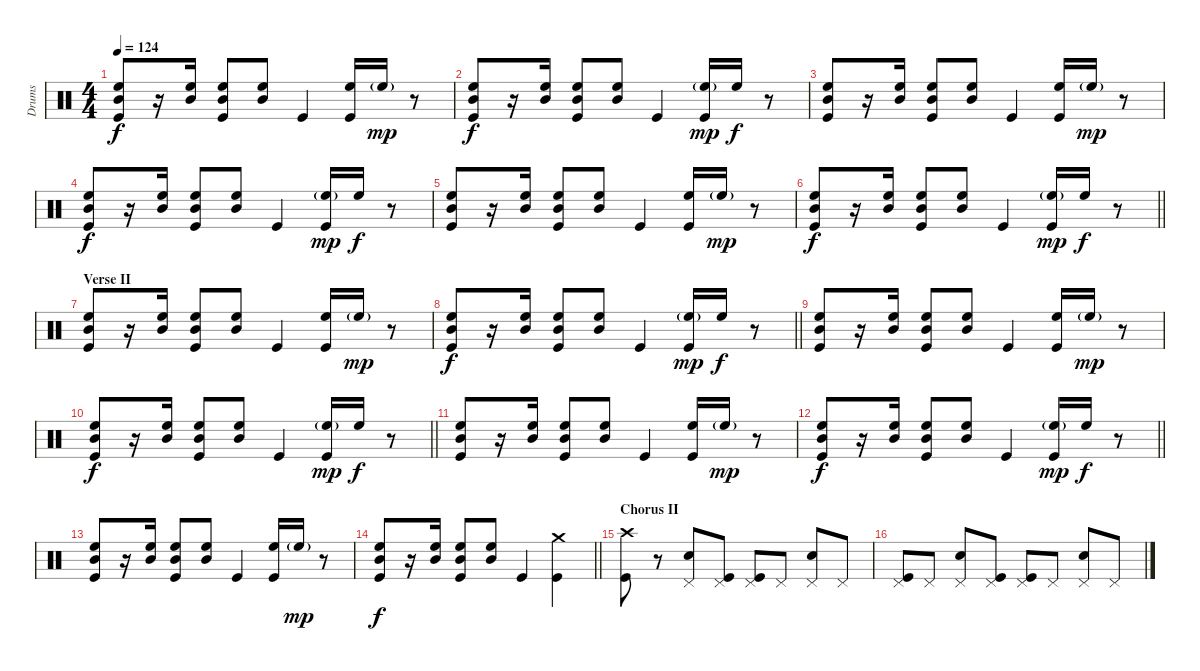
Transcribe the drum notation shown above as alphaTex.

\track ("Drums" "Drums") {instrument percussion}
\staff {score}
\articulation defaults
\ts (4 4)
\tempo 124
\clef neutral
\ks c
("High Floor Tom (hit)" "Mid Tom (hit)" "Kick (hit)").8{dy f} r.16 ("High Floor Tom (hit)" "Mid Tom (hit)").16 ("High Floor Tom (hit)" "Mid Tom (hit)" "Kick (hit)").8 ("High Floor Tom (hit)" "Mid Tom (hit)").8 "Kick (hit)".4 ("High Floor Tom (hit)" "Kick (hit)").16 "High Floor Tom (hit)"{g}.16{dy mp} r.8 |
("High Floor Tom (hit)" "Mid Tom (hit)" "Kick (hit)").8{dy f} r.16 ("High Floor Tom (hit)" "Mid Tom (hit)").16 ("High Floor Tom (hit)" "Mid Tom (hit)" "Kick (hit)").8 ("High Floor Tom (hit)" "Mid Tom (hit)").8 "Kick (hit)".4 ("High Floor Tom (hit)"{g} "Kick (hit)").16{dy mp} "High Floor Tom (hit)".16{dy f} r.8 |
("High Floor Tom (hit)" "Mid Tom (hit)" "Kick (hit)").8 r.16 ("High Floor Tom (hit)" "Mid Tom (hit)").16 ("High Floor Tom (hit)" "Mid Tom (hit)" "Kick (hit)").8 ("High Floor Tom (hit)" "Mid Tom (hit)").8 "Kick (hit)".4 ("High Floor Tom (hit)" "Kick (hit)").16 "High Floor Tom (hit)"{g}.16{dy mp} r.8 |
("High Floor Tom (hit)" "Mid Tom (hit)" "Kick (hit)").8{dy f} r.16 ("High Floor Tom (hit)" "Mid Tom (hit)").16 ("High Floor Tom (hit)" "Mid Tom (hit)" "Kick (hit)").8 ("High Floor Tom (hit)" "Mid Tom (hit)").8 "Kick (hit)".4 ("High Floor Tom (hit)"{g} "Kick (hit)").16{dy mp} "High Floor Tom (hit)".16{dy f} r.8 |
("High Floor Tom (hit)" "Mid Tom (hit)" "Kick (hit)").8 r.16 ("High Floor Tom (hit)" "Mid Tom (hit)").16 ("High Floor Tom (hit)" "Mid Tom (hit)" "Kick (hit)").8 ("High Floor Tom (hit)" "Mid Tom (hit)").8 "Kick (hit)".4 ("High Floor Tom (hit)" "Kick (hit)").16 "High Floor Tom (hit)"{g}.16{dy mp} r.8 |
\barLineRight lightlight
("High Floor Tom (hit)" "Mid Tom (hit)" "Kick (hit)").8{dy f} r.16 ("High Floor Tom (hit)" "Mid Tom (hit)").16 ("High Floor Tom (hit)" "Mid Tom (hit)" "Kick (hit)").8 ("High Floor Tom (hit)" "Mid Tom (hit)").8 "Kick (hit)".4 ("High Floor Tom (hit)"{g} "Kick (hit)").16{dy mp} "High Floor Tom (hit)".16{dy f} r.8 |
\section ("" "Verse II")
("High Floor Tom (hit)" "Mid Tom (hit)" "Kick (hit)").8 r.16 ("High Floor Tom (hit)" "Mid Tom (hit)").16 ("High Floor Tom (hit)" "Mid Tom (hit)" "Kick (hit)").8 ("High Floor Tom (hit)" "Mid Tom (hit)").8 "Kick (hit)".4 ("High Floor Tom (hit)" "Kick (hit)").16 "High Floor Tom (hit)"{g}.16{dy mp} r.8 |
\barLineRight lightlight
("High Floor Tom (hit)" "Mid Tom (hit)" "Kick (hit)").8{dy f} r.16 ("High Floor Tom (hit)" "Mid Tom (hit)").16 ("High Floor Tom (hit)" "Mid Tom (hit)" "Kick (hit)").8 ("High Floor Tom (hit)" "Mid Tom (hit)").8 "Kick (hit)".4 ("High Floor Tom (hit)"{g} "Kick (hit)").16{dy mp} "High Floor Tom (hit)".16{dy f} r.8 |
("High Floor Tom (hit)" "Mid Tom (hit)" "Kick (hit)").8 r.16 ("High Floor Tom (hit)" "Mid Tom (hit)").16 ("High Floor Tom (hit)" "Mid Tom (hit)" "Kick (hit)").8 ("High Floor Tom (hit)" "Mid Tom (hit)").8 "Kick (hit)".4 ("High Floor Tom (hit)" "Kick (hit)").16 "High Floor Tom (hit)"{g}.16{dy mp} r.8 |
\barLineRight lightlight
("High Floor Tom (hit)" "Mid Tom (hit)" "Kick (hit)").8{dy f} r.16 ("High Floor Tom (hit)" "Mid Tom (hit)").16 ("High Floor Tom (hit)" "Mid Tom (hit)" "Kick (hit)").8 ("High Floor Tom (hit)" "Mid Tom (hit)").8 "Kick (hit)".4 ("High Floor Tom (hit)"{g} "Kick (hit)").16{dy mp} "High Floor Tom (hit)".16{dy f} r.8 |
("High Floor Tom (hit)" "Mid Tom (hit)" "Kick (hit)").8 r.16 ("High Floor Tom (hit)" "Mid Tom (hit)").16 ("High Floor Tom (hit)" "Mid Tom (hit)" "Kick (hit)").8 ("High Floor Tom (hit)" "Mid Tom (hit)").8 "Kick (hit)".4 ("High Floor Tom (hit)" "Kick (hit)").16 "High Floor Tom (hit)"{g}.16{dy mp} r.8 |
\barLineRight lightlight
("High Floor Tom (hit)" "Mid Tom (hit)" "Kick (hit)").8{dy f} r.16 ("High Floor Tom (hit)" "Mid Tom (hit)").16 ("High Floor Tom (hit)" "Mid Tom (hit)" "Kick (hit)").8 ("High Floor Tom (hit)" "Mid Tom (hit)").8 "Kick (hit)".4 ("High Floor Tom (hit)"{g} "Kick (hit)").16{dy mp} "High Floor Tom (hit)".16{dy f} r.8 |
("High Floor Tom (hit)" "Mid Tom (hit)" "Kick (hit)").8 r.16 ("High Floor Tom (hit)" "Mid Tom (hit)").16 ("High Floor Tom (hit)" "Mid Tom (hit)" "Kick (hit)").8 ("High Floor Tom (hit)" "Mid Tom (hit)").8 "Kick (hit)".4 ("High Floor Tom (hit)" "Kick (hit)").16 "High Floor Tom (hit)"{g}.16{dy mp} r.8 |
\barLineRight lightlight
("High Floor Tom (hit)" "Mid Tom (hit)" "Kick (hit)").8{dy f} r.16 ("High Floor Tom (hit)" "Mid Tom (hit)").16 ("High Floor Tom (hit)" "Mid Tom (hit)" "Kick (hit)").8 ("High Floor Tom (hit)" "Mid Tom (hit)").8 "Kick (hit)".4 ("Crash medium (hit)" "Kick (hit)").4 |
\section ("" "Chorus II")
("Crash high (hit)" "Kick (hit)").8 r.8 ("Pedal Hi-Hat (hit)" "Electric Snare (hit)").8 ("Pedal Hi-Hat (hit)" "Kick (hit)").8 ("Pedal Hi-Hat (hit)" "Kick (hit)").8 "Pedal Hi-Hat (hit)".8 ("Pedal Hi-Hat (hit)" "Electric Snare (hit)").8 "Pedal Hi-Hat (hit)".8 |
("Pedal Hi-Hat (hit)" "Kick (hit)").8 "Pedal Hi-Hat (hit)".8 ("Pedal Hi-Hat (hit)" "Electric Snare (hit)").8 ("Pedal Hi-Hat (hit)" "Kick (hit)").8 ("Pedal Hi-Hat (hit)" "Kick (hit)").8 "Pedal Hi-Hat (hit)".8 ("Pedal Hi-Hat (hit)" "Electric Snare (hit)").8 "Pedal Hi-Hat (hit)".8
